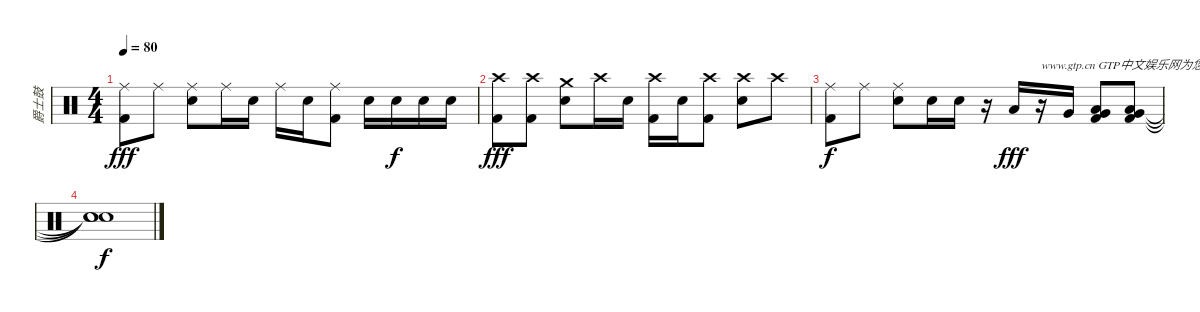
\track ("爵士鼓" "爵士鼓") {instrument percussion}
\staff {score}
\articulation defaults
\ts (4 4)
\tempo 80
\clef neutral
\ks c
("Ride (middle)" "Kick (hit) 2").8{dy fff} "Ride (middle)".8 ("Ride (middle)" "Electric Snare (hit)").8 "Ride (middle)".16 "Electric Snare (hit)".16 "Ride (middle)".16 "Electric Snare (hit)".16 ("Ride (middle)" "Kick (hit) 2").8 "Electric Snare (hit)".16 "Electric Snare (hit)".16{dy f} "Electric Snare (hit)".16 "Electric Snare (hit)".16 |
("Crash high (hit)" "Kick (hit) 2").8{dy fff} ("Crash high (hit)" "Kick (hit) 2").8 ("Crash medium (hit)" "Electric Snare (hit)").8 "Crash high (hit)".16 "Electric Snare (hit)".16 ("Crash high (hit)" "Kick (hit) 2").16 "Electric Snare (hit)".16 ("Crash high (hit)" "Kick (hit) 2").8 ("Crash high (hit)" "Electric Snare (hit)").8 "Crash high (hit)".8 |
("Ride (middle)" "Kick (hit) 2").8{dy f} "Ride (middle)".8 ("Ride (middle)" "Electric Snare (hit)").8 "Electric Snare (hit)".16 "Electric Snare (hit)".16 r.16 "Low Tom (hit)".16{dy fff} r.16{txt "www.gtp.cn GTP中文娱乐网为您提供优秀的谱子"} "Very Low Tom (hit)".16 ("Low Floor Tom (hit)" "Very Low Tom (hit)" "Kick (hit) 2").8 ("Low Floor Tom (hit)" "Very Low Tom (hit)" "Kick (hit) 2").8 |
("Snare (hit)"{t} "Snare (hit)"{t} "Snare (hit)"{t}).1{dy f}
